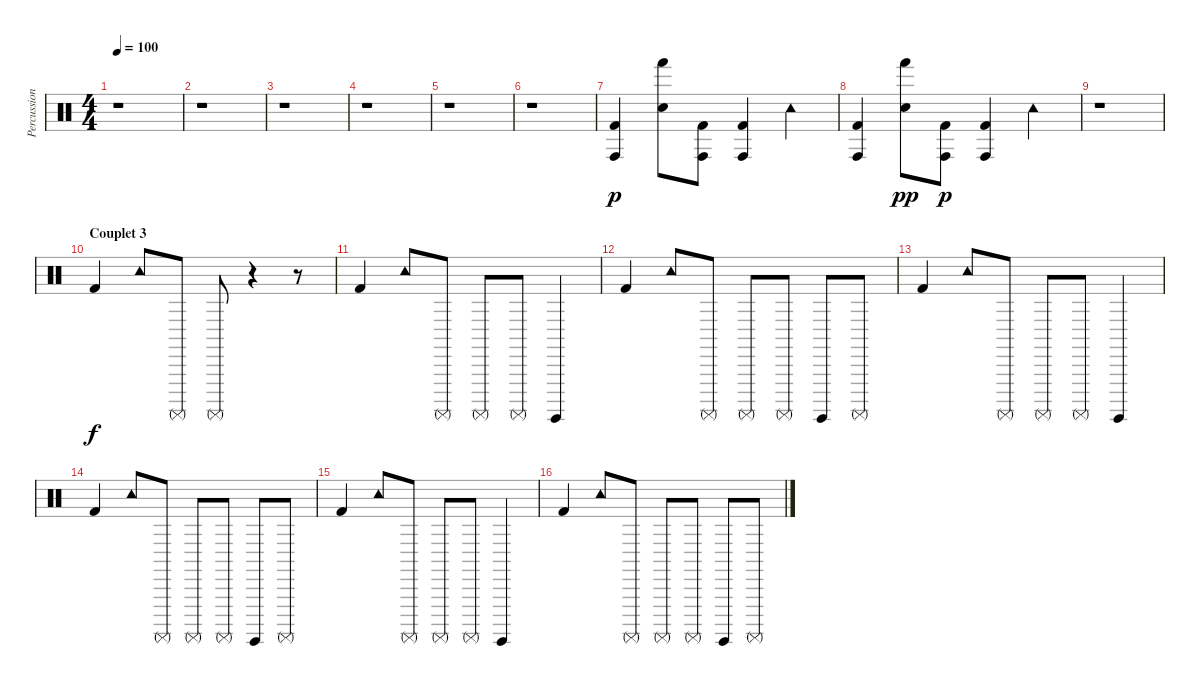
\track ("Percussions" "Percussion") {instrument percussion}
\staff {score}
\articulation defaults
\ts (4 4)
\tempo 100
\clef neutral
\ks c
r.1{dy f} |
r.1 |
r.1 |
r.1 |
r.1 |
r.1 |
("Conga high (hit)" "Kick (hit) 2").4{dy p} ("Hand (hit)" "Electric Snare (hit)").8 ("Conga high (hit)" "Kick (hit) 2").8 ("Conga high (hit)" "Kick (hit) 2").4 "Tambourine (hit)".4 |
("Conga high (hit)" "Kick (hit) 2").4 ("Hand (hit)" "Electric Snare (hit)").8{dy pp} ("Conga high (hit)" "Kick (hit) 2").8{dy p} ("Conga high (hit)" "Kick (hit) 2").4 "Tambourine (hit)".4 |
r.1 |
\section ("" "Couplet 3")
"Kick (hit) 2".4{dy f} "Tambourine (hit)".8 "Surdo (mute)".8 "Surdo (mute)".8 r.4 r.8 |
"Kick (hit) 2".4 "Tambourine (hit)".8 "Surdo (mute)".8 "Surdo (mute)".8 "Surdo (mute)".8 "Surdo (hit)".4 |
"Kick (hit) 2".4 "Tambourine (hit)".8 "Surdo (mute)".8 "Surdo (mute)".8 "Surdo (mute)".8 "Surdo (hit)".8 "Surdo (mute)".8 |
"Kick (hit) 2".4 "Tambourine (hit)".8 "Surdo (mute)".8 "Surdo (mute)".8 "Surdo (mute)".8 "Surdo (hit)".4 |
"Kick (hit) 2".4 "Tambourine (hit)".8 "Surdo (mute)".8 "Surdo (mute)".8 "Surdo (mute)".8 "Surdo (hit)".8 "Surdo (mute)".8 |
"Kick (hit) 2".4 "Tambourine (hit)".8 "Surdo (mute)".8 "Surdo (mute)".8 "Surdo (mute)".8 "Surdo (hit)".4 |
"Kick (hit) 2".4 "Tambourine (hit)".8 "Surdo (mute)".8 "Surdo (mute)".8 "Surdo (mute)".8 "Surdo (hit)".8 "Surdo (mute)".8
